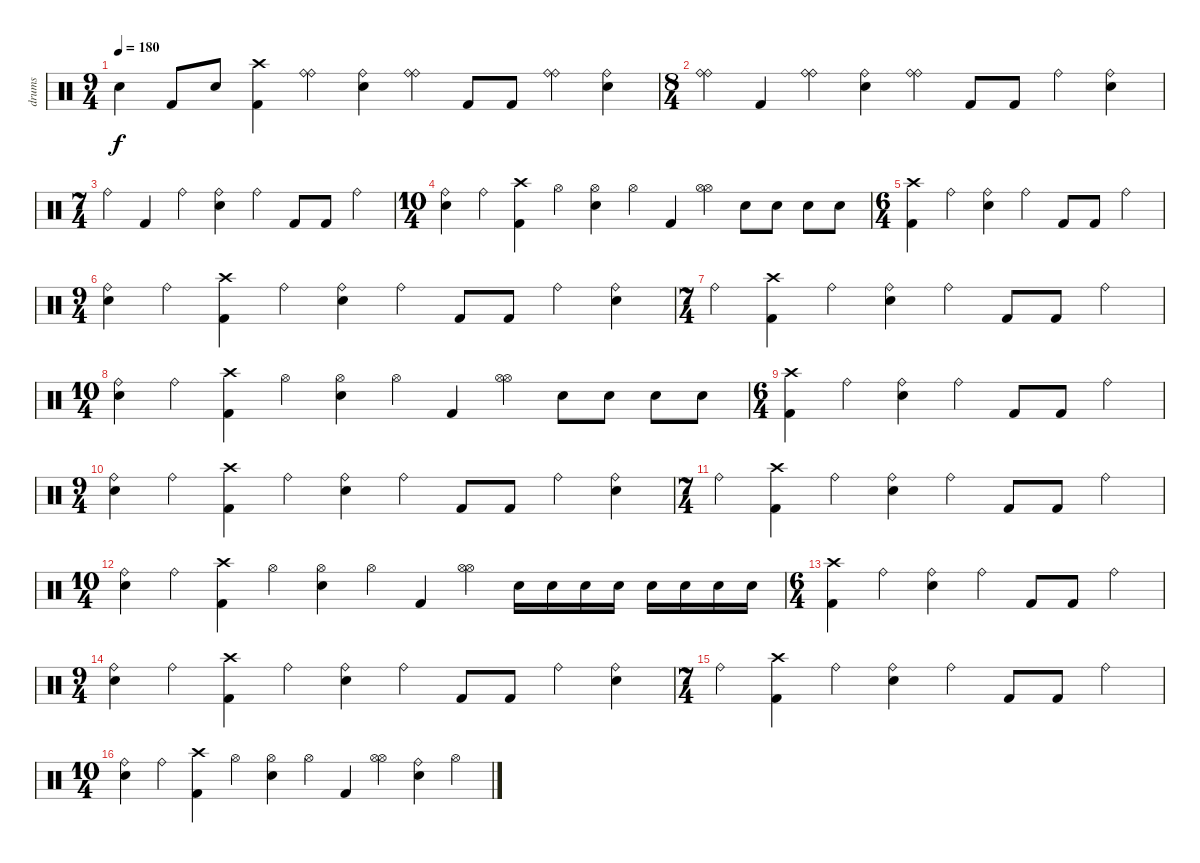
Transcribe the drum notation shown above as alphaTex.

\track ("drums" "drums") {instrument percussion}
\staff {score}
\articulation defaults
\ts (9 4)
\tempo 180
\clef neutral
\ks c "Snare (hit) 2".4{dy f} "Kick (hit) 2".8 "Snare (hit) 2".8
("Crash high (hit)" "Kick (hit) 2").4 ("Ride (bell)" "Ride (bell)").4 ("Snare (hit) 2" "Ride (bell)").4 ("Ride (bell)" "Ride (bell)").4 "Kick (hit) 2".8 "Kick (hit) 2".8 ("Ride (bell)" "Ride (bell)").4 ("Snare (hit) 2" "Ride (bell)").4 |
\ts (8 4)
("Ride (bell)" "Ride (bell)").4 "Kick (hit) 2".4 ("Ride (bell)" "Ride (bell)").4 ("Snare (hit) 2" "Ride (bell)").4 ("Ride (bell)" "Ride (bell)").4 "Kick (hit) 2".8 "Kick (hit) 2".8 "Ride (bell)".4 ("Snare (hit) 2" "Ride (bell)").4 |
\ts (7 4)
"Ride (bell)".4 "Kick (hit) 2".4 "Ride (bell)".4 ("Snare (hit) 2" "Ride (bell)").4 "Ride (bell)".4 "Kick (hit) 2".8 "Kick (hit) 2".8 "Ride (bell)".4 |
\ts (10 4)
("Snare (hit) 2" "Ride (bell)").4 "Ride (bell)".4 ("Crash high (hit)" "Kick (hit) 2").4 "Hi-Hat (open)".4 ("Snare (hit) 2" "Hi-Hat (open)").4 "Hi-Hat (open)".4 "Kick (hit) 2".4 ("Hi-Hat (open)" "Hi-Hat (open)").4 "Snare (hit) 2".8 "Snare (hit) 2".8 "Snare (hit) 2".8 "Snare (hit) 2".8 |
\ts (6 4)
("Crash high (hit)" "Kick (hit) 2").4 "Ride (bell)".4 ("Snare (hit) 2" "Ride (bell)").4 "Ride (bell)".4 "Kick (hit) 2".8 "Kick (hit) 2".8 "Ride (bell)".4 |
\ts (9 4)
("Snare (hit) 2" "Ride (bell)").4 "Ride (bell)".4 ("Kick (hit) 2" "Crash high (hit)").4 "Ride (bell)".4 ("Snare (hit) 2" "Ride (bell)").4 "Ride (bell)".4 "Kick (hit) 2".8 "Kick (hit) 2".8 "Ride (bell)".4 ("Snare (hit) 2" "Ride (bell)").4 |
\ts (7 4)
"Ride (bell)".4 ("Kick (hit) 2" "Crash high (hit)").4 "Ride (bell)".4 ("Snare (hit) 2" "Ride (bell)").4 "Ride (bell)".4 "Kick (hit) 2".8 "Kick (hit) 2".8 "Ride (bell)".4 |
\ts (10 4)
("Snare (hit) 2" "Ride (bell)").4 "Ride (bell)".4 ("Crash high (hit)" "Kick (hit) 2").4 "Hi-Hat (open)".4 ("Snare (hit) 2" "Hi-Hat (open)").4 "Hi-Hat (open)".4 "Kick (hit) 2".4 ("Hi-Hat (open)" "Hi-Hat (open)").4 "Snare (hit) 2".8 "Snare (hit) 2".8 "Snare (hit) 2".8 "Snare (hit) 2".8 |
\ts (6 4)
("Crash high (hit)" "Kick (hit) 2").4 "Ride (bell)".4 ("Snare (hit) 2" "Ride (bell)").4 "Ride (bell)".4 "Kick (hit) 2".8 "Kick (hit) 2".8 "Ride (bell)".4 |
\ts (9 4)
("Snare (hit) 2" "Ride (bell)").4 "Ride (bell)".4 ("Kick (hit) 2" "Crash high (hit)").4 "Ride (bell)".4 ("Snare (hit) 2" "Ride (bell)").4 "Ride (bell)".4 "Kick (hit) 2".8 "Kick (hit) 2".8 "Ride (bell)".4 ("Snare (hit) 2" "Ride (bell)").4 |
\ts (7 4)
"Ride (bell)".4 ("Kick (hit) 2" "Crash high (hit)").4 "Ride (bell)".4 ("Snare (hit) 2" "Ride (bell)").4 "Ride (bell)".4 "Kick (hit) 2".8 "Kick (hit) 2".8 "Ride (bell)".4 |
\ts (10 4)
("Snare (hit) 2" "Ride (bell)").4 "Ride (bell)".4 ("Crash high (hit)" "Kick (hit) 2").4 "Hi-Hat (open)".4 ("Snare (hit) 2" "Hi-Hat (open)").4 "Hi-Hat (open)".4 "Kick (hit) 2".4 ("Hi-Hat (open)" "Hi-Hat (open)").4 "Snare (hit) 2".16 "Snare (hit) 2".16 "Snare (hit) 2".16 "Snare (hit) 2".16 "Snare (hit) 2".16 "Snare (hit) 2".16 "Snare (hit) 2".16 "Snare (hit) 2".16 |
\ts (6 4)
("Crash high (hit)" "Kick (hit) 2").4 "Ride (bell)".4 ("Snare (hit) 2" "Ride (bell)").4 "Ride (bell)".4 "Kick (hit) 2".8 "Kick (hit) 2".8 "Ride (bell)".4 |
\ts (9 4)
("Snare (hit) 2" "Ride (bell)").4 "Ride (bell)".4 ("Kick (hit) 2" "Crash high (hit)").4 "Ride (bell)".4 ("Snare (hit) 2" "Ride (bell)").4 "Ride (bell)".4 "Kick (hit) 2".8 "Kick (hit) 2".8 "Ride (bell)".4 ("Snare (hit) 2" "Ride (bell)").4 |
\ts (7 4)
"Ride (bell)".4 ("Kick (hit) 2" "Crash high (hit)").4 "Ride (bell)".4 ("Snare (hit) 2" "Ride (bell)").4 "Ride (bell)".4 "Kick (hit) 2".8 "Kick (hit) 2".8 "Ride (bell)".4 |
\ts (10 4)
("Snare (hit) 2" "Ride (bell)").4 "Ride (bell)".4 ("Crash high (hit)" "Kick (hit) 2").4 "Hi-Hat (open)".4 ("Snare (hit) 2" "Hi-Hat (open)").4 "Hi-Hat (open)".4 "Kick (hit) 2".4 ("Hi-Hat (open)" "Hi-Hat (open)").4 ("Snare (hit) 2" "Ride (bell)").4 "Hi-Hat (open)".4
